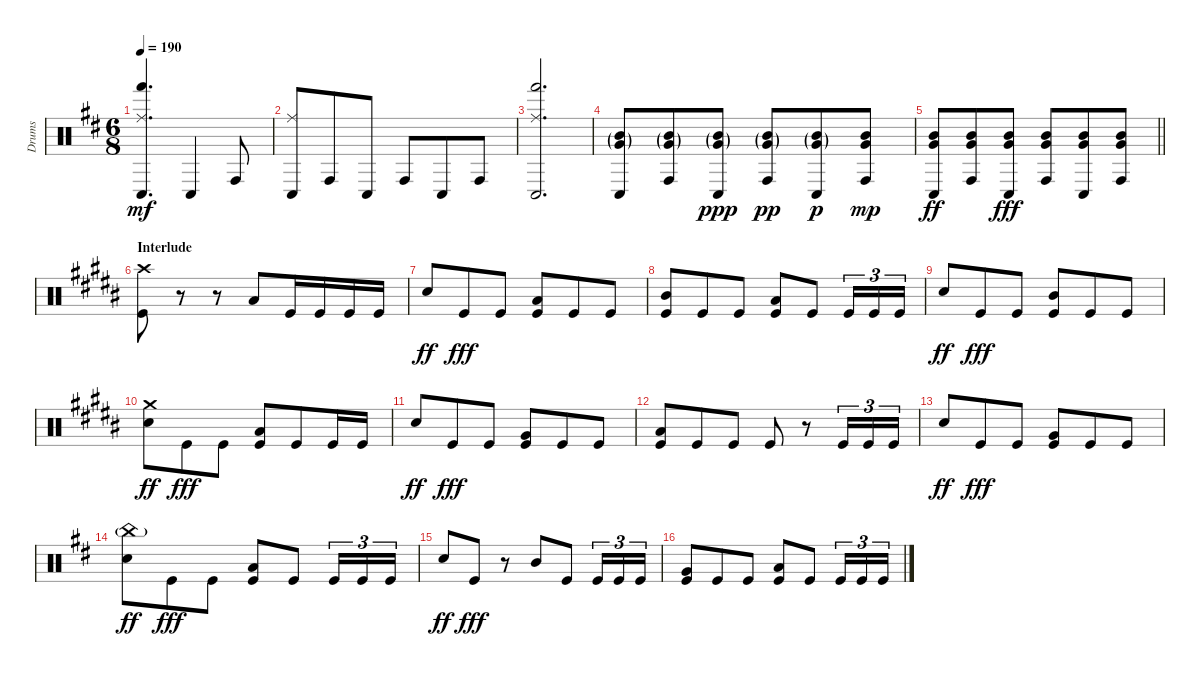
\track ("Drums" "Drums") {instrument percussion}
\staff {score}
\articulation defaults
\ts (6 8)
\tempo 190
\clef neutral
\ks bminor
("Ride (middle)" "Hand (hit)" "Conga low (hit)").4{d dy mf} "Conga low (hit)".4 "Conga high (hit)".8 |
("Ride (middle)" "Conga low (hit)").8 "Conga high (hit)".8 "Conga low (hit)".8 "Conga high (hit)".8 "Conga low (hit)".8 "Conga high (hit)".8 |
("Ride (middle)" "Hand (hit)" "Conga low (hit)").2{d} |
("Very Low Tom (hit)"{g} "Mid Tom (hit)"{g} "Conga low (hit)").8 ("Very Low Tom (hit)"{g} "Mid Tom (hit)"{g} "Conga high (hit)").8 ("Very Low Tom (hit)"{g} "Mid Tom (hit)"{g} "Conga low (hit)").8{dy ppp} ("Very Low Tom (hit)"{g} "Mid Tom (hit)"{g} "Conga high (hit)").8{dy pp} ("Very Low Tom (hit)"{g} "Mid Tom (hit)"{g} "Conga low (hit)").8{dy p} ("Very Low Tom (hit)" "Mid Tom (hit)" "Conga high (hit)").8{dy mp} |
\barLineRight lightlight
("Very Low Tom (hit)" "Mid Tom (hit)" "Conga low (hit)").8{dy ff} ("Very Low Tom (hit)" "Mid Tom (hit)" "Conga high (hit)").8 ("Very Low Tom (hit)" "Mid Tom (hit)" "Conga low (hit)").8{dy fff} ("Very Low Tom (hit)" "Mid Tom (hit)" "Conga high (hit)").8 ("Very Low Tom (hit)" "Mid Tom (hit)" "Conga low (hit)").8 ("Very Low Tom (hit)" "Mid Tom (hit)" "Conga high (hit)").8 |
\section ("" "Interlude")
\ks g#minor
("Crash high (hit)" "Kick (hit)").8 r.8 r.8 "Low Tom (hit)".8 "Kick (hit)".16 "Kick (hit)".16 "Kick (hit)".16 "Kick (hit)".16 |
"Snare (hit) 2".8{dy ff} "Kick (hit)".8{dy fff} "Kick (hit)".8 ("Low Tom (hit)" "Kick (hit)").8 "Kick (hit)".8 "Kick (hit)".8 |
("Mid Tom (hit)" "Kick (hit)").8 "Kick (hit)".8 "Kick (hit)".8 ("Low Tom (hit)" "Kick (hit)").8 "Kick (hit)".8 "Kick (hit)".16{tu (3 2)} "Kick (hit)".16{tu (3 2)} "Kick (hit)".16{tu (3 2)} |
"Snare (hit) 2".8{dy ff} "Kick (hit)".8{dy fff} "Kick (hit)".8 ("Mid Tom (hit)" "Kick (hit)").8 "Kick (hit)".8 "Kick (hit)".8 |
("Crash medium (hit)" "Snare (hit) 2").8{dy ff} "Kick (hit)".8{dy fff} "Kick (hit)".8 ("Low Tom (hit)" "Kick (hit)").8 "Kick (hit)".8 "Kick (hit)".16 "Kick (hit)".16 |
"Snare (hit) 2".8{dy ff} "Kick (hit)".8{dy fff} "Kick (hit)".8 ("Very Low Tom (hit)" "Kick (hit)").8 "Kick (hit)".8 "Kick (hit)".8 |
("Low Floor Tom (hit)" "Kick (hit)").8 "Kick (hit)".8 "Kick (hit)".8 "Kick (hit)".8 r.8 "Kick (hit)".16{tu (3 2)} "Kick (hit)".16{tu (3 2)} "Kick (hit)".16{tu (3 2)} |
"Snare (hit) 2".8{dy ff} "Kick (hit)".8{dy fff} "Kick (hit)".8 ("Very Low Tom (hit)" "Kick (hit)").8 "Kick (hit)".8 "Kick (hit)".8 |
\ks bminor
("China (hit)"{g} "Snare (hit) 2").8{dy ff} "Kick (hit)".8{dy fff} "Kick (hit)".8 ("Low Tom (hit)" "Kick (hit)").8 "Kick (hit)".8 "Kick (hit)".16{tu (3 2)} "Kick (hit)".16{tu (3 2)} "Kick (hit)".16{tu (3 2)} |
"Snare (hit) 2".8{dy ff} "Kick (hit)".8{dy fff} r.8 "Mid Tom (hit)".8 "Kick (hit)".8 "Kick (hit)".16{tu (3 2)} "Kick (hit)".16{tu (3 2)} "Kick (hit)".16{tu (3 2)} |
("Very Low Tom (hit)" "Kick (hit)").8 "Kick (hit)".8 "Kick (hit)".8 ("Low Tom (hit)" "Kick (hit)").8 "Kick (hit)".8 "Kick (hit)".16{tu (3 2)} "Kick (hit)".16{tu (3 2)} "Kick (hit)".16{tu (3 2)}
